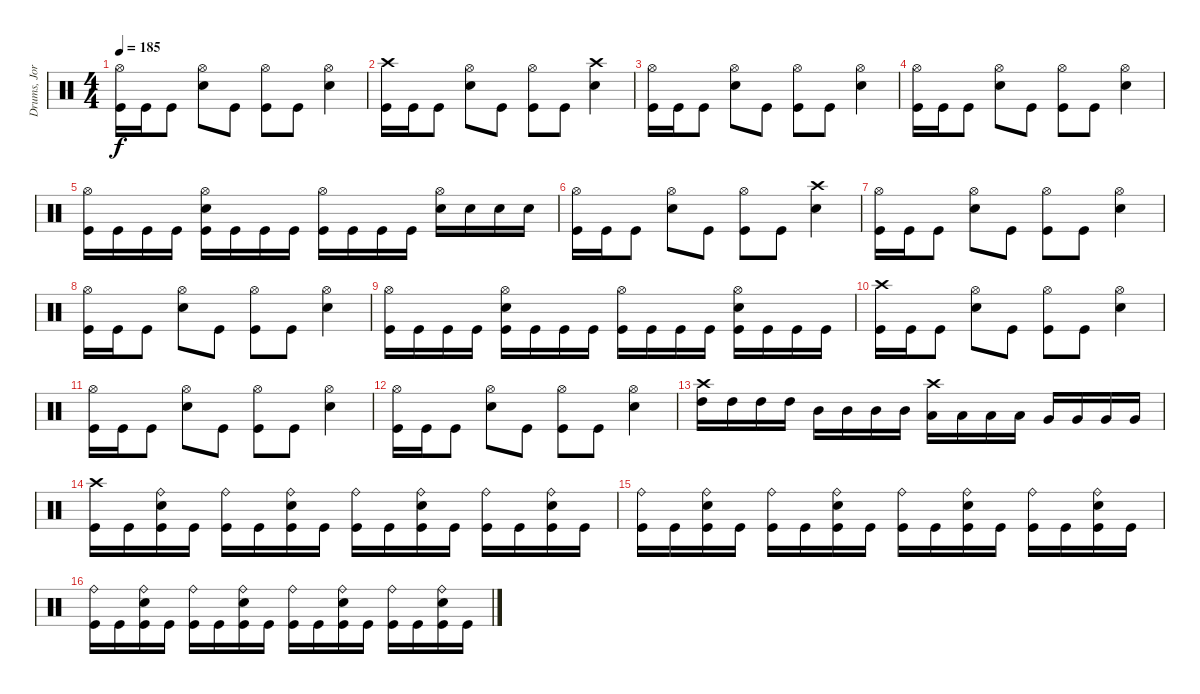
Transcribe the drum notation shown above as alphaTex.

\track ("Drums, Jorye Sáez" "Drums, Jor") {instrument percussion}
\staff {score}
\articulation defaults
\ts (4 4)
\tempo 185
\clef neutral
\ks c
("Hi-Hat (open)" "Kick (hit)").16{dy f} "Kick (hit)".16 "Kick (hit)".8 ("Hi-Hat (open)" "Electric Snare (hit)").8 "Kick (hit)".8 ("Hi-Hat (open)" "Kick (hit)").8 "Kick (hit)".8 ("Hi-Hat (open)" "Electric Snare (hit)").4 |
("Crash high (hit)" "Kick (hit)").16 "Kick (hit)".16 "Kick (hit)".8 ("Hi-Hat (open)" "Electric Snare (hit)").8 "Kick (hit)".8 ("Hi-Hat (open)" "Kick (hit)").8 "Kick (hit)".8 ("Crash high (hit)" "Electric Snare (hit)").4 |
("Hi-Hat (open)" "Kick (hit)").16 "Kick (hit)".16 "Kick (hit)".8 ("Hi-Hat (open)" "Electric Snare (hit)").8 "Kick (hit)".8 ("Hi-Hat (open)" "Kick (hit)").8 "Kick (hit)".8 ("Hi-Hat (open)" "Electric Snare (hit)").4 |
("Hi-Hat (open)" "Kick (hit)").16 "Kick (hit)".16 "Kick (hit)".8 ("Hi-Hat (open)" "Electric Snare (hit)").8 "Kick (hit)".8 ("Hi-Hat (open)" "Kick (hit)").8 "Kick (hit)".8 ("Hi-Hat (open)" "Electric Snare (hit)").4 |
("Hi-Hat (open)" "Kick (hit)").16 "Kick (hit)".16 "Kick (hit)".16 "Kick (hit)".16 ("Hi-Hat (open)" "Electric Snare (hit)" "Kick (hit)").16 "Kick (hit)".16 "Kick (hit)".16 "Kick (hit)".16 ("Hi-Hat (open)" "Kick (hit)").16 "Kick (hit)".16 "Kick (hit)".16 "Kick (hit)".16 ("Hi-Hat (open)" "Electric Snare (hit)").16 "Electric Snare (hit)".16 "Electric Snare (hit)".16 "Electric Snare (hit)".16 |
("Hi-Hat (open)" "Kick (hit)").16 "Kick (hit)".16 "Kick (hit)".8 ("Hi-Hat (open)" "Electric Snare (hit)").8 "Kick (hit)".8 ("Hi-Hat (open)" "Kick (hit)").8 "Kick (hit)".8 ("Crash high (hit)" "Electric Snare (hit)").4 |
("Hi-Hat (open)" "Kick (hit)").16 "Kick (hit)".16 "Kick (hit)".8 ("Hi-Hat (open)" "Electric Snare (hit)").8 "Kick (hit)".8 ("Hi-Hat (open)" "Kick (hit)").8 "Kick (hit)".8 ("Hi-Hat (open)" "Electric Snare (hit)").4 |
("Hi-Hat (open)" "Kick (hit)").16 "Kick (hit)".16 "Kick (hit)".8 ("Hi-Hat (open)" "Electric Snare (hit)").8 "Kick (hit)".8 ("Hi-Hat (open)" "Kick (hit)").8 "Kick (hit)".8 ("Hi-Hat (open)" "Electric Snare (hit)").4 |
("Hi-Hat (open)" "Kick (hit)").16 "Kick (hit)".16 "Kick (hit)".16 "Kick (hit)".16 ("Hi-Hat (open)" "Electric Snare (hit)" "Kick (hit)").16 "Kick (hit)".16 "Kick (hit)".16 "Kick (hit)".16 ("Hi-Hat (open)" "Kick (hit)").16 "Kick (hit)".16 "Kick (hit)".16 "Kick (hit)".16 ("Hi-Hat (open)" "Electric Snare (hit)" "Kick (hit)").16 "Kick (hit)".16 "Kick (hit)".16 "Kick (hit)".16 |
("Crash high (hit)" "Kick (hit)").16 "Kick (hit)".16 "Kick (hit)".8 ("Hi-Hat (open)" "Electric Snare (hit)").8 "Kick (hit)".8 ("Hi-Hat (open)" "Kick (hit)").8 "Kick (hit)".8 ("Hi-Hat (open)" "Electric Snare (hit)").4 |
("Hi-Hat (open)" "Kick (hit)").16 "Kick (hit)".16 "Kick (hit)".8 ("Hi-Hat (open)" "Electric Snare (hit)").8 "Kick (hit)".8 ("Hi-Hat (open)" "Kick (hit)").8 "Kick (hit)".8 ("Hi-Hat (open)" "Electric Snare (hit)").4 |
("Hi-Hat (open)" "Kick (hit)").16 "Kick (hit)".16 "Kick (hit)".8 ("Hi-Hat (open)" "Electric Snare (hit)").8 "Kick (hit)".8 ("Hi-Hat (open)" "Kick (hit)").8 "Kick (hit)".8 ("Hi-Hat (open)" "Electric Snare (hit)").4 |
("High Tom (hit)" "Crash high (hit)").16 "High Tom (hit)".16 "High Tom (hit)".16 "High Tom (hit)".16 "Mid Tom (hit)".16 "Mid Tom (hit)".16 "Mid Tom (hit)".16 "Mid Tom (hit)".16 ("Low Tom (hit)" "Crash high (hit)").16 "Low Tom (hit)".16 "Low Tom (hit)".16 "Low Tom (hit)".16 "Very Low Tom (hit)".16 "Very Low Tom (hit)".16 "Very Low Tom (hit)".16 "Very Low Tom (hit)".16 |
("Crash high (hit)" "Kick (hit)").16 "Kick (hit)".16 ("Ride (bell)" "Electric Snare (hit)" "Kick (hit)").16 "Kick (hit)".16 ("Ride (bell)" "Kick (hit)").16 "Kick (hit)".16 ("Ride (bell)" "Electric Snare (hit)" "Kick (hit)").16 "Kick (hit)".16 ("Ride (bell)" "Kick (hit)").16 "Kick (hit)".16 ("Ride (bell)" "Electric Snare (hit)" "Kick (hit)").16 "Kick (hit)".16 ("Ride (bell)" "Kick (hit)").16 "Kick (hit)".16 ("Ride (bell)" "Electric Snare (hit)" "Kick (hit)").16 "Kick (hit)".16 |
("Ride (bell)" "Kick (hit)").16 "Kick (hit)".16 ("Ride (bell)" "Electric Snare (hit)" "Kick (hit)").16 "Kick (hit)".16 ("Ride (bell)" "Kick (hit)").16 "Kick (hit)".16 ("Ride (bell)" "Electric Snare (hit)" "Kick (hit)").16 "Kick (hit)".16 ("Ride (bell)" "Kick (hit)").16 "Kick (hit)".16 ("Ride (bell)" "Electric Snare (hit)" "Kick (hit)").16 "Kick (hit)".16 ("Ride (bell)" "Kick (hit)").16 "Kick (hit)".16 ("Ride (bell)" "Electric Snare (hit)" "Kick (hit)").16 "Kick (hit)".16 |
("Ride (bell)" "Kick (hit)").16 "Kick (hit)".16 ("Ride (bell)" "Electric Snare (hit)" "Kick (hit)").16 "Kick (hit)".16 ("Ride (bell)" "Kick (hit)").16 "Kick (hit)".16 ("Ride (bell)" "Electric Snare (hit)" "Kick (hit)").16 "Kick (hit)".16 ("Ride (bell)" "Kick (hit)").16 "Kick (hit)".16 ("Ride (bell)" "Electric Snare (hit)" "Kick (hit)").16 "Kick (hit)".16 ("Ride (bell)" "Kick (hit)").16 "Kick (hit)".16 ("Ride (bell)" "Electric Snare (hit)" "Kick (hit)").16 "Kick (hit)".16
